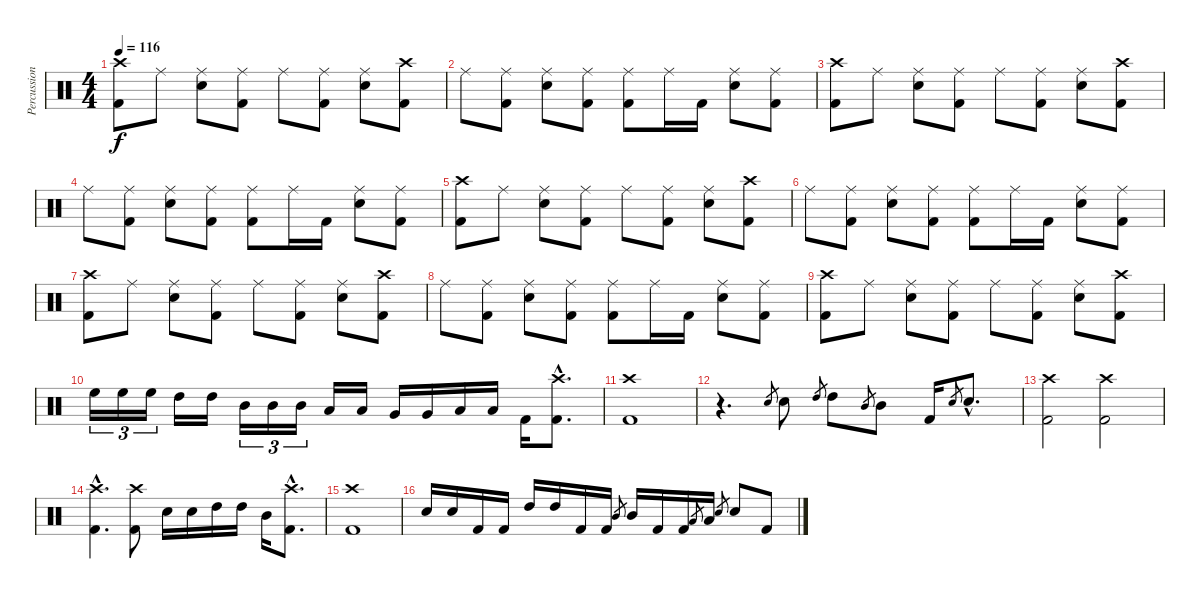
\track ("Percussion" "Percussion") {instrument percussion}
\staff {score}
\articulation defaults
\ts (4 4)
\tempo 116
\clef neutral
\ks c
("Crash high (hit)" "Kick (hit) 2").8{dy f} "Ride (middle)".8 ("Ride (middle)" "Snare (hit) 2").8 ("Ride (middle)" "Kick (hit) 2").8 "Ride (middle)".8 ("Ride (middle)" "Kick (hit) 2").8 ("Ride (middle)" "Snare (hit) 2").8 ("Crash high (hit)" "Kick (hit) 2").8 |
"Ride (middle)".8 ("Ride (middle)" "Kick (hit) 2").8 ("Ride (middle)" "Snare (hit) 2").8 ("Ride (middle)" "Kick (hit) 2").8 ("Ride (middle)" "Kick (hit) 2").8 "Ride (middle)".16 "Kick (hit) 2".16 ("Ride (middle)" "Snare (hit) 2").8 ("Ride (middle)" "Kick (hit) 2").8 |
("Crash high (hit)" "Kick (hit) 2").8 "Ride (middle)".8 ("Ride (middle)" "Snare (hit) 2").8 ("Ride (middle)" "Kick (hit) 2").8 "Ride (middle)".8 ("Ride (middle)" "Kick (hit) 2").8 ("Ride (middle)" "Snare (hit) 2").8 ("Crash high (hit)" "Kick (hit) 2").8 |
"Ride (middle)".8 ("Ride (middle)" "Kick (hit) 2").8 ("Ride (middle)" "Snare (hit) 2").8 ("Ride (middle)" "Kick (hit) 2").8 ("Ride (middle)" "Kick (hit) 2").8 "Ride (middle)".16 "Kick (hit) 2".16 ("Ride (middle)" "Snare (hit) 2").8 ("Ride (middle)" "Kick (hit) 2").8 |
("Crash high (hit)" "Kick (hit) 2").8 "Ride (middle)".8 ("Ride (middle)" "Snare (hit) 2").8 ("Ride (middle)" "Kick (hit) 2").8 "Ride (middle)".8 ("Ride (middle)" "Kick (hit) 2").8 ("Ride (middle)" "Snare (hit) 2").8 ("Crash high (hit)" "Kick (hit) 2").8 |
"Ride (middle)".8 ("Ride (middle)" "Kick (hit) 2").8 ("Ride (middle)" "Snare (hit) 2").8 ("Ride (middle)" "Kick (hit) 2").8 ("Ride (middle)" "Kick (hit) 2").8 "Ride (middle)".16 "Kick (hit) 2".16 ("Ride (middle)" "Snare (hit) 2").8 ("Ride (middle)" "Kick (hit) 2").8 |
("Crash high (hit)" "Kick (hit) 2").8 "Ride (middle)".8 ("Ride (middle)" "Snare (hit) 2").8 ("Ride (middle)" "Kick (hit) 2").8 "Ride (middle)".8 ("Ride (middle)" "Kick (hit) 2").8 ("Ride (middle)" "Snare (hit) 2").8 ("Crash high (hit)" "Kick (hit) 2").8 |
"Ride (middle)".8 ("Ride (middle)" "Kick (hit) 2").8 ("Ride (middle)" "Snare (hit) 2").8 ("Ride (middle)" "Kick (hit) 2").8 ("Ride (middle)" "Kick (hit) 2").8 "Ride (middle)".16 "Kick (hit) 2".16 ("Ride (middle)" "Snare (hit) 2").8 ("Ride (middle)" "Kick (hit) 2").8 |
("Crash high (hit)" "Kick (hit) 2").8 "Ride (middle)".8 ("Ride (middle)" "Snare (hit) 2").8 ("Ride (middle)" "Kick (hit) 2").8 "Ride (middle)".8 ("Ride (middle)" "Kick (hit) 2").8 ("Ride (middle)" "Snare (hit) 2").8 ("Crash high (hit)" "Kick (hit) 2").8 |
"High Floor Tom (hit)".16{tu (3 2)} "High Floor Tom (hit)".16{tu (3 2)} "High Floor Tom (hit)".16{tu (3 2)} "High Tom (hit)".16 "High Tom (hit)".16 "Mid Tom (hit)".16{tu (3 2)} "Mid Tom (hit)".16{tu (3 2)} "Mid Tom (hit)".16{tu (3 2)} "Low Tom (hit)".16 "Low Tom (hit)".16 "Very Low Tom (hit)".16 "Very Low Tom (hit)".16 "Low Floor Tom (hit)".16 "Low Floor Tom (hit)".16 "Kick (hit) 2".16 ("Crash high (hit)"{hac} "Kick (hit) 2"{hac}).8{d} |
("Crash high (hit)" "Kick (hit) 2").1 |
r.4{d} "Snare (hit) 2".8{gr} "Snare (hit) 2".8 "High Tom (hit)".8{gr} "High Tom (hit)".8 "Mid Tom (hit)".8{gr} "Mid Tom (hit)".8 "Kick (hit) 2".16 "Snare (hit) 2".8{gr} "Snare (hit) 2"{hac}.8{d} |
("Crash high (hit)" "Kick (hit) 2").2 ("Crash high (hit)" "Kick (hit) 2").2 |
("Crash high (hit)"{hac} "Kick (hit) 2"{hac}).4{d} ("Crash high (hit)" "Kick (hit) 2").8 "Snare (hit) 2".16 "Snare (hit) 2".16 "High Tom (hit)".16 "High Tom (hit)".16 "Mid Tom (hit)".16 ("Crash high (hit)"{hac} "Kick (hit) 2"{hac}).8{d} |
("Crash high (hit)" "Kick (hit) 2").1 |
"Snare (hit) 2".16 "Snare (hit) 2".16 "Kick (hit) 2".16 "Kick (hit) 2".16 "High Tom (hit)".16 "High Tom (hit)".16 "Kick (hit) 2".16 "Kick (hit) 2".16 "Mid Tom (hit)".8{gr} "Mid Tom (hit)".16 "Kick (hit) 2".16 "Kick (hit) 2".16 "Low Tom (hit)".8{gr} "Low Tom (hit)".16 "Snare (hit) 2".8{gr} "Snare (hit) 2".8 "Kick (hit) 2".8
